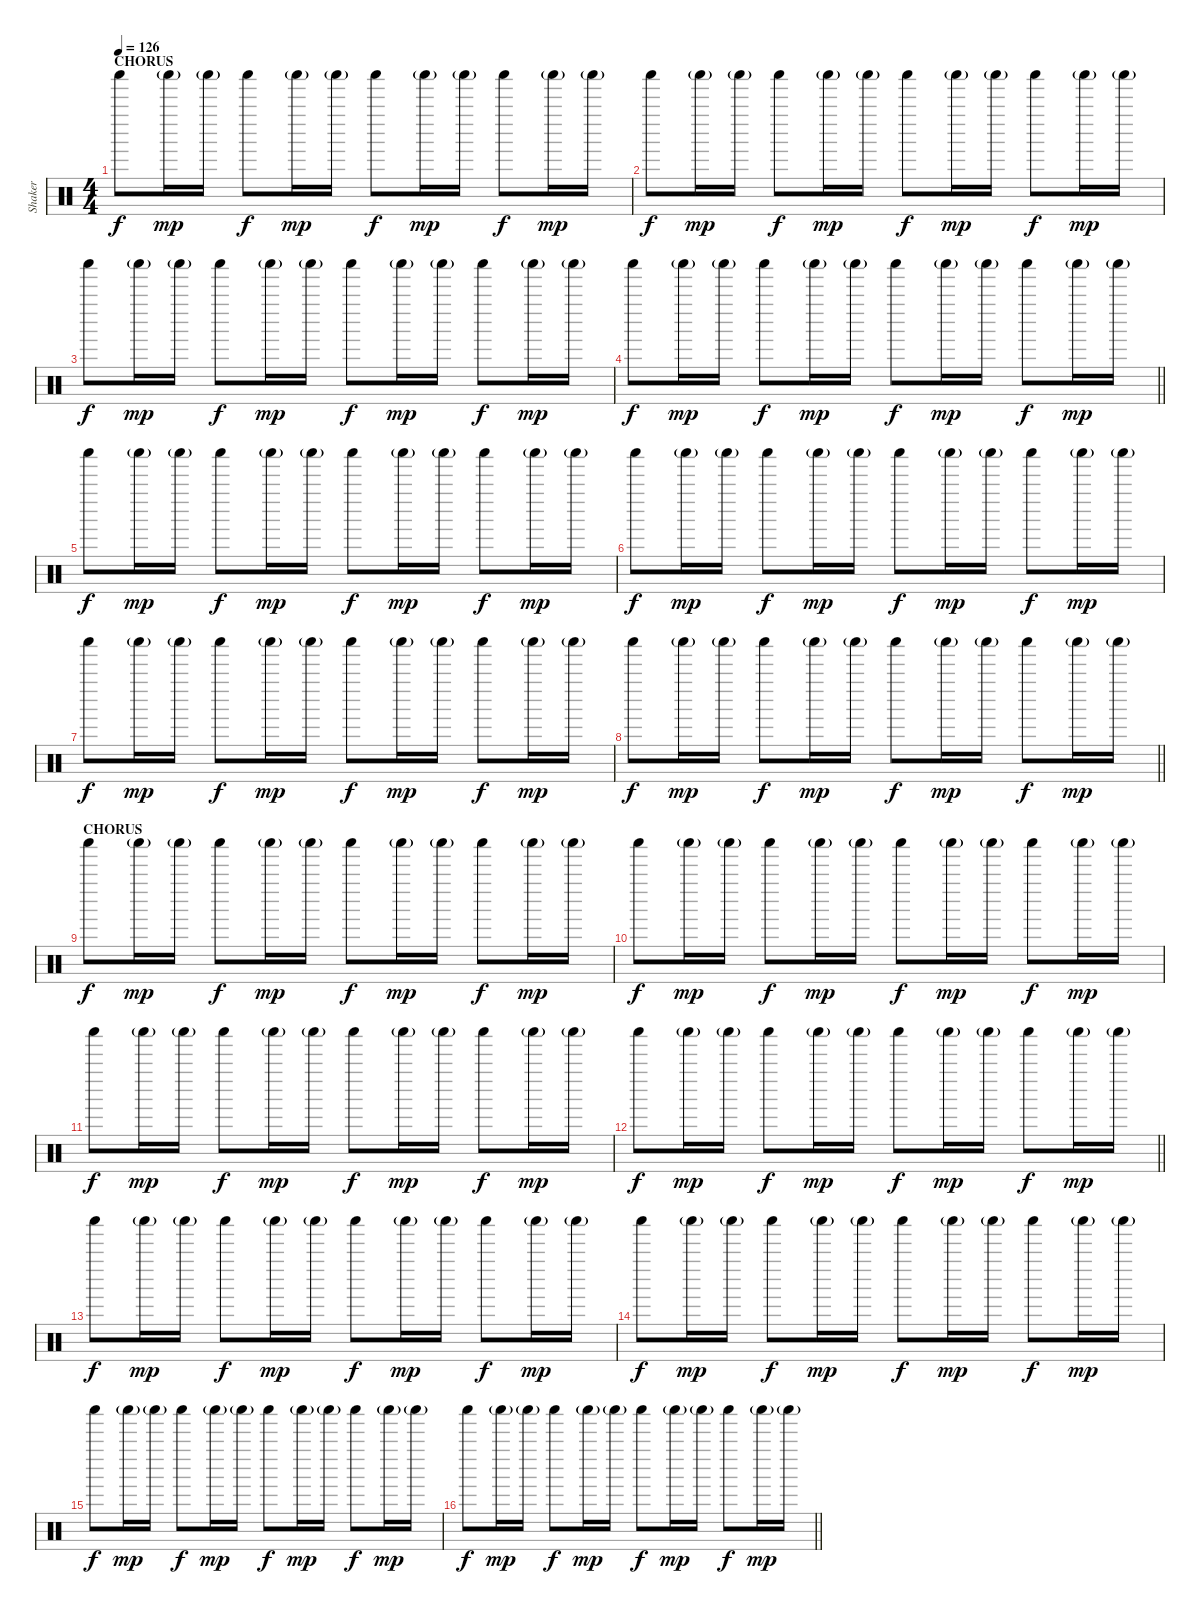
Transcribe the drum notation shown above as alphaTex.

\track ("Shaker" "Shaker") {instrument percussion}
\staff {score}
\articulation defaults
\ts (4 4)
\section ("" "CHORUS")
\tempo 126
\clef neutral
\ks c "Shaker (hit)".8{dy f} "Shaker (hit)"{g}.16{dy mp} "Shaker (hit)"{g}.16 "Shaker (hit)".8{dy f} "Shaker (hit)"{g}.16{dy mp} "Shaker (hit)"{g}.16 "Shaker (hit)".8{dy f} "Shaker (hit)"{g}.16{dy mp} "Shaker (hit)"{g}.16 "Shaker (hit)".8{dy f} "Shaker (hit)"{g}.16{dy mp} "Shaker (hit)"{g}.16
|
"Shaker (hit)".8{dy f} "Shaker (hit)"{g}.16{dy mp} "Shaker (hit)"{g}.16 "Shaker (hit)".8{dy f} "Shaker (hit)"{g}.16{dy mp} "Shaker (hit)"{g}.16 "Shaker (hit)".8{dy f} "Shaker (hit)"{g}.16{dy mp} "Shaker (hit)"{g}.16 "Shaker (hit)".8{dy f} "Shaker (hit)"{g}.16{dy mp} "Shaker (hit)"{g}.16 |
"Shaker (hit)".8{dy f} "Shaker (hit)"{g}.16{dy mp} "Shaker (hit)"{g}.16 "Shaker (hit)".8{dy f} "Shaker (hit)"{g}.16{dy mp} "Shaker (hit)"{g}.16 "Shaker (hit)".8{dy f} "Shaker (hit)"{g}.16{dy mp} "Shaker (hit)"{g}.16 "Shaker (hit)".8{dy f} "Shaker (hit)"{g}.16{dy mp} "Shaker (hit)"{g}.16 |
\barLineRight lightlight "Shaker (hit)".8{dy f} "Shaker (hit)"{g}.16{dy mp} "Shaker (hit)"{g}.16 "Shaker (hit)".8{dy f} "Shaker (hit)"{g}.16{dy mp} "Shaker (hit)"{g}.16 "Shaker (hit)".8{dy f} "Shaker (hit)"{g}.16{dy mp} "Shaker (hit)"{g}.16 "Shaker (hit)".8{dy f} "Shaker (hit)"{g}.16{dy mp} "Shaker (hit)"{g}.16
|
"Shaker (hit)".8{dy f} "Shaker (hit)"{g}.16{dy mp} "Shaker (hit)"{g}.16 "Shaker (hit)".8{dy f} "Shaker (hit)"{g}.16{dy mp} "Shaker (hit)"{g}.16 "Shaker (hit)".8{dy f} "Shaker (hit)"{g}.16{dy mp} "Shaker (hit)"{g}.16 "Shaker (hit)".8{dy f} "Shaker (hit)"{g}.16{dy mp} "Shaker (hit)"{g}.16 |
"Shaker (hit)".8{dy f} "Shaker (hit)"{g}.16{dy mp} "Shaker (hit)"{g}.16 "Shaker (hit)".8{dy f} "Shaker (hit)"{g}.16{dy mp} "Shaker (hit)"{g}.16 "Shaker (hit)".8{dy f} "Shaker (hit)"{g}.16{dy mp} "Shaker (hit)"{g}.16 "Shaker (hit)".8{dy f} "Shaker (hit)"{g}.16{dy mp} "Shaker (hit)"{g}.16 |
"Shaker (hit)".8{dy f} "Shaker (hit)"{g}.16{dy mp} "Shaker (hit)"{g}.16 "Shaker (hit)".8{dy f} "Shaker (hit)"{g}.16{dy mp} "Shaker (hit)"{g}.16 "Shaker (hit)".8{dy f} "Shaker (hit)"{g}.16{dy mp} "Shaker (hit)"{g}.16 "Shaker (hit)".8{dy f} "Shaker (hit)"{g}.16{dy mp} "Shaker (hit)"{g}.16 |
\barLineRight lightlight "Shaker (hit)".8{dy f} "Shaker (hit)"{g}.16{dy mp} "Shaker (hit)"{g}.16 "Shaker (hit)".8{dy f} "Shaker (hit)"{g}.16{dy mp} "Shaker (hit)"{g}.16 "Shaker (hit)".8{dy f} "Shaker (hit)"{g}.16{dy mp} "Shaker (hit)"{g}.16 "Shaker (hit)".8{dy f} "Shaker (hit)"{g}.16{dy mp} "Shaker (hit)"{g}.16
|
\section ("" "CHORUS")
"Shaker (hit)".8{dy f} "Shaker (hit)"{g}.16{dy mp} "Shaker (hit)"{g}.16 "Shaker (hit)".8{dy f} "Shaker (hit)"{g}.16{dy mp} "Shaker (hit)"{g}.16 "Shaker (hit)".8{dy f} "Shaker (hit)"{g}.16{dy mp} "Shaker (hit)"{g}.16 "Shaker (hit)".8{dy f} "Shaker (hit)"{g}.16{dy mp} "Shaker (hit)"{g}.16 |
"Shaker (hit)".8{dy f} "Shaker (hit)"{g}.16{dy mp} "Shaker (hit)"{g}.16 "Shaker (hit)".8{dy f} "Shaker (hit)"{g}.16{dy mp} "Shaker (hit)"{g}.16 "Shaker (hit)".8{dy f} "Shaker (hit)"{g}.16{dy mp} "Shaker (hit)"{g}.16 "Shaker (hit)".8{dy f} "Shaker (hit)"{g}.16{dy mp} "Shaker (hit)"{g}.16 |
"Shaker (hit)".8{dy f} "Shaker (hit)"{g}.16{dy mp} "Shaker (hit)"{g}.16 "Shaker (hit)".8{dy f} "Shaker (hit)"{g}.16{dy mp} "Shaker (hit)"{g}.16 "Shaker (hit)".8{dy f} "Shaker (hit)"{g}.16{dy mp} "Shaker (hit)"{g}.16 "Shaker (hit)".8{dy f} "Shaker (hit)"{g}.16{dy mp} "Shaker (hit)"{g}.16 |
\barLineRight lightlight "Shaker (hit)".8{dy f} "Shaker (hit)"{g}.16{dy mp} "Shaker (hit)"{g}.16 "Shaker (hit)".8{dy f} "Shaker (hit)"{g}.16{dy mp} "Shaker (hit)"{g}.16 "Shaker (hit)".8{dy f} "Shaker (hit)"{g}.16{dy mp} "Shaker (hit)"{g}.16 "Shaker (hit)".8{dy f} "Shaker (hit)"{g}.16{dy mp} "Shaker (hit)"{g}.16
|
"Shaker (hit)".8{dy f} "Shaker (hit)"{g}.16{dy mp} "Shaker (hit)"{g}.16 "Shaker (hit)".8{dy f} "Shaker (hit)"{g}.16{dy mp} "Shaker (hit)"{g}.16 "Shaker (hit)".8{dy f} "Shaker (hit)"{g}.16{dy mp} "Shaker (hit)"{g}.16 "Shaker (hit)".8{dy f} "Shaker (hit)"{g}.16{dy mp} "Shaker (hit)"{g}.16 |
"Shaker (hit)".8{dy f} "Shaker (hit)"{g}.16{dy mp} "Shaker (hit)"{g}.16 "Shaker (hit)".8{dy f} "Shaker (hit)"{g}.16{dy mp} "Shaker (hit)"{g}.16 "Shaker (hit)".8{dy f} "Shaker (hit)"{g}.16{dy mp} "Shaker (hit)"{g}.16 "Shaker (hit)".8{dy f} "Shaker (hit)"{g}.16{dy mp} "Shaker (hit)"{g}.16 |
"Shaker (hit)".8{dy f} "Shaker (hit)"{g}.16{dy mp} "Shaker (hit)"{g}.16 "Shaker (hit)".8{dy f} "Shaker (hit)"{g}.16{dy mp} "Shaker (hit)"{g}.16 "Shaker (hit)".8{dy f} "Shaker (hit)"{g}.16{dy mp} "Shaker (hit)"{g}.16 "Shaker (hit)".8{dy f} "Shaker (hit)"{g}.16{dy mp} "Shaker (hit)"{g}.16 |
\barLineRight lightlight "Shaker (hit)".8{dy f} "Shaker (hit)"{g}.16{dy mp} "Shaker (hit)"{g}.16 "Shaker (hit)".8{dy f} "Shaker (hit)"{g}.16{dy mp} "Shaker (hit)"{g}.16 "Shaker (hit)".8{dy f} "Shaker (hit)"{g}.16{dy mp} "Shaker (hit)"{g}.16 "Shaker (hit)".8{dy f} "Shaker (hit)"{g}.16{dy mp} "Shaker (hit)"{g}.16
